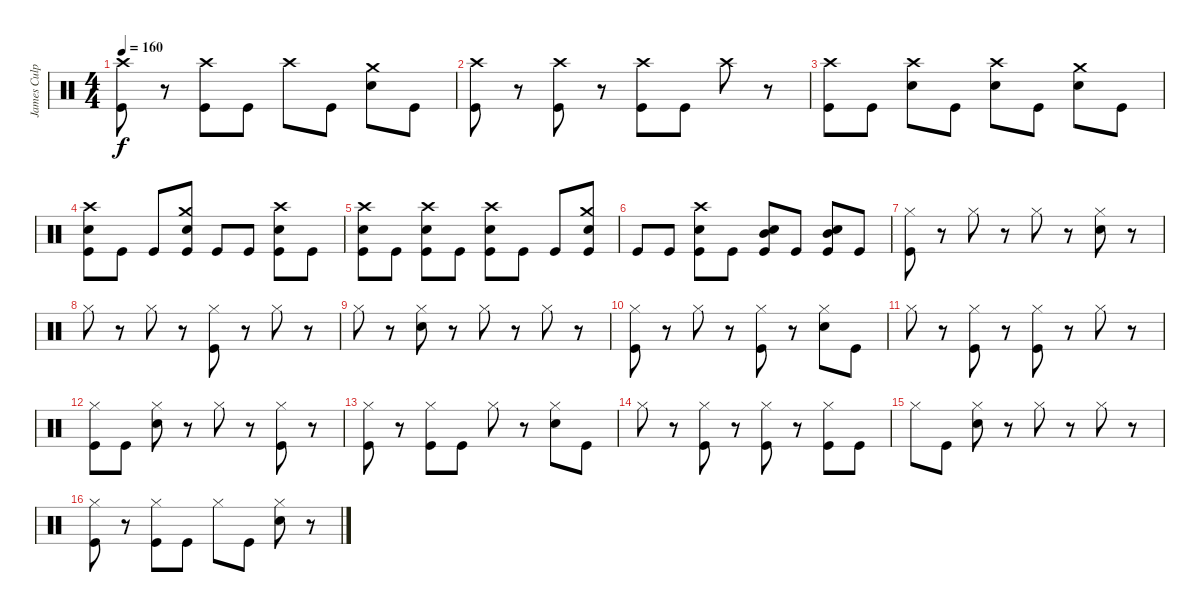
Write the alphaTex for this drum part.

\track ("James Culpepper - drums" "James Culp") {instrument percussion}
\staff {score}
\articulation defaults
\ts (4 4)
\tempo 160
\clef neutral
\ks c
("Crash high (hit)" "Kick (hit)").8{dy f} r.8 ("Crash high (hit)" "Kick (hit)").8 "Kick (hit)".8 "Crash high (hit)".8 "Kick (hit)".8 ("Crash medium (hit)" "Snare (hit) 2").8 "Kick (hit)".8 |
("Crash high (hit)" "Kick (hit)").8 r.8 ("Crash high (hit)" "Kick (hit)").8 r.8 ("Crash high (hit)" "Kick (hit)").8 "Kick (hit)".8 "Crash high (hit)".8 r.8 |
("Crash high (hit)" "Kick (hit)").8 "Kick (hit)".8 ("Crash high (hit)" "Snare (hit) 2").8 "Kick (hit)".8 ("Crash high (hit)" "Snare (hit) 2").8 "Kick (hit)".8 ("Crash medium (hit)" "Snare (hit) 2").8 "Kick (hit)".8 |
("Crash high (hit)" "Snare (hit) 2" "Kick (hit)").8 "Kick (hit)".8 "Kick (hit)".8 ("Crash medium (hit)" "Snare (hit) 2" "Kick (hit)").8 "Kick (hit)".8 "Kick (hit)".8 ("Crash high (hit)" "Snare (hit) 2" "Kick (hit)").8 "Kick (hit)".8 |
("Crash high (hit)" "Snare (hit) 2" "Kick (hit)").8 "Kick (hit)".8 ("Crash high (hit)" "Snare (hit) 2" "Kick (hit)").8 "Kick (hit)".8 ("Crash high (hit)" "Snare (hit) 2" "Kick (hit)").8 "Kick (hit)".8 "Kick (hit)".8 ("Crash medium (hit)" "Snare (hit) 2" "Kick (hit)").8 |
"Kick (hit)".8 "Kick (hit)".8 ("Crash high (hit)" "Snare (hit) 2" "Kick (hit)").8 "Kick (hit)".8 ("Mid Tom (hit)" "Snare (hit) 2" "Kick (hit)").8 "Kick (hit)".8 ("Mid Tom (hit)" "Snare (hit) 2" "Kick (hit)").8 "Kick (hit)".8 |
("Hi-Hat (closed)" "Kick (hit)").8 r.8 "Hi-Hat (closed)".8 r.8 "Hi-Hat (closed)".8 r.8 ("Hi-Hat (closed)" "Snare (hit) 2").8 r.8 |
"Hi-Hat (closed)".8 r.8 "Hi-Hat (closed)".8 r.8 ("Hi-Hat (closed)" "Kick (hit)").8 r.8 "Hi-Hat (closed)".8 r.8 |
"Hi-Hat (closed)".8 r.8 ("Hi-Hat (closed)" "Snare (hit) 2").8 r.8 "Hi-Hat (closed)".8 r.8 "Hi-Hat (closed)".8 r.8 |
("Hi-Hat (closed)" "Kick (hit)").8 r.8 "Hi-Hat (closed)".8 r.8 ("Hi-Hat (closed)" "Kick (hit)").8 r.8 ("Hi-Hat (closed)" "Snare (hit) 2").8 "Kick (hit)".8 |
"Hi-Hat (closed)".8 r.8 ("Hi-Hat (closed)" "Kick (hit)").8 r.8 ("Hi-Hat (closed)" "Kick (hit)").8 r.8 "Hi-Hat (closed)".8 r.8 |
("Hi-Hat (closed)" "Kick (hit)").8 "Kick (hit)".8 ("Hi-Hat (closed)" "Snare (hit) 2").8 r.8 "Hi-Hat (closed)".8 r.8 ("Hi-Hat (closed)" "Kick (hit)").8 r.8 |
("Hi-Hat (closed)" "Kick (hit)").8 r.8 ("Hi-Hat (closed)" "Kick (hit)").8 "Kick (hit)".8 "Hi-Hat (closed)".8 r.8 ("Hi-Hat (closed)" "Snare (hit) 2").8 "Kick (hit)".8 |
"Hi-Hat (closed)".8 r.8 ("Hi-Hat (closed)" "Kick (hit)").8 r.8 ("Hi-Hat (closed)" "Kick (hit)").8 r.8 ("Hi-Hat (closed)" "Kick (hit)").8 "Kick (hit)".8 |
"Hi-Hat (closed)".8 "Kick (hit)".8 ("Hi-Hat (closed)" "Snare (hit) 2").8 r.8 "Hi-Hat (closed)".8 r.8 "Hi-Hat (closed)".8 r.8 |
("Hi-Hat (closed)" "Kick (hit)").8 r.8 ("Hi-Hat (closed)" "Kick (hit)").8 "Kick (hit)".8 "Hi-Hat (closed)".8 "Kick (hit)".8 ("Hi-Hat (closed)" "Snare (hit) 2").8 r.8
